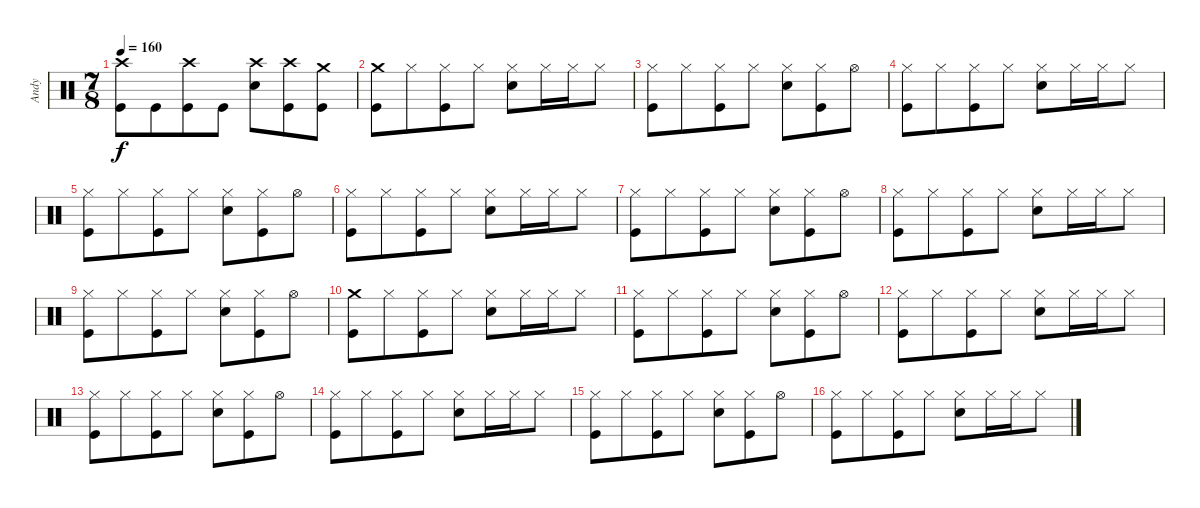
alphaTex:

\track ("Andy" "Andy") {instrument percussion}
\staff {score}
\articulation defaults
\ts (7 8)
\tempo 160
\clef neutral
\ks c
("Kick (hit)" "Crash high (hit)").8{dy f} "Kick (hit)".8 ("Kick (hit)" "Crash high (hit)").8 "Kick (hit)".8 ("Snare (hit) 2" "Crash high (hit)").8 ("Kick (hit)" "Crash high (hit)").8 ("Kick (hit)" "Crash medium (hit)").8 |
("Kick (hit)" "Crash medium (hit)").8 "Hi-Hat (closed)".8 ("Hi-Hat (closed)" "Kick (hit)").8 "Hi-Hat (closed)".8 ("Hi-Hat (closed)" "Snare (hit) 2").8 "Hi-Hat (closed)".16 "Hi-Hat (closed)".16 "Hi-Hat (closed)".8 |
("Kick (hit)" "Hi-Hat (closed)").8 "Hi-Hat (closed)".8 ("Hi-Hat (closed)" "Kick (hit)").8 "Hi-Hat (closed)".8 ("Hi-Hat (closed)" "Snare (hit) 2").8 ("Kick (hit)" "Hi-Hat (closed)").8 "Hi-Hat (open)".8 |
("Kick (hit)" "Hi-Hat (closed)").8 "Hi-Hat (closed)".8 ("Hi-Hat (closed)" "Kick (hit)").8 "Hi-Hat (closed)".8 ("Hi-Hat (closed)" "Snare (hit) 2").8 "Hi-Hat (closed)".16 "Hi-Hat (closed)".16 "Hi-Hat (closed)".8 |
("Kick (hit)" "Hi-Hat (closed)").8 "Hi-Hat (closed)".8 ("Hi-Hat (closed)" "Kick (hit)").8 "Hi-Hat (closed)".8 ("Hi-Hat (closed)" "Snare (hit) 2").8 ("Kick (hit)" "Hi-Hat (closed)").8 "Hi-Hat (open)".8 |
("Kick (hit)" "Hi-Hat (closed)").8 "Hi-Hat (closed)".8 ("Hi-Hat (closed)" "Kick (hit)").8 "Hi-Hat (closed)".8 ("Hi-Hat (closed)" "Snare (hit) 2").8 "Hi-Hat (closed)".16 "Hi-Hat (closed)".16 "Hi-Hat (closed)".8 |
("Kick (hit)" "Hi-Hat (closed)").8 "Hi-Hat (closed)".8 ("Hi-Hat (closed)" "Kick (hit)").8 "Hi-Hat (closed)".8 ("Hi-Hat (closed)" "Snare (hit) 2").8 ("Kick (hit)" "Hi-Hat (closed)").8 "Hi-Hat (open)".8 |
("Kick (hit)" "Hi-Hat (closed)").8 "Hi-Hat (closed)".8 ("Hi-Hat (closed)" "Kick (hit)").8 "Hi-Hat (closed)".8 ("Hi-Hat (closed)" "Snare (hit) 2").8 "Hi-Hat (closed)".16 "Hi-Hat (closed)".16 "Hi-Hat (closed)".8 |
("Kick (hit)" "Hi-Hat (closed)").8 "Hi-Hat (closed)".8 ("Hi-Hat (closed)" "Kick (hit)").8 "Hi-Hat (closed)".8 ("Hi-Hat (closed)" "Snare (hit) 2").8 ("Kick (hit)" "Hi-Hat (closed)").8 "Hi-Hat (open)".8 |
("Kick (hit)" "Crash medium (hit)").8 "Hi-Hat (closed)".8 ("Hi-Hat (closed)" "Kick (hit)").8 "Hi-Hat (closed)".8 ("Hi-Hat (closed)" "Snare (hit) 2").8 "Hi-Hat (closed)".16 "Hi-Hat (closed)".16 "Hi-Hat (closed)".8 |
("Kick (hit)" "Hi-Hat (closed)").8 "Hi-Hat (closed)".8 ("Hi-Hat (closed)" "Kick (hit)").8 "Hi-Hat (closed)".8 ("Hi-Hat (closed)" "Snare (hit) 2").8 ("Kick (hit)" "Hi-Hat (closed)").8 "Hi-Hat (open)".8 |
("Kick (hit)" "Hi-Hat (closed)").8 "Hi-Hat (closed)".8 ("Hi-Hat (closed)" "Kick (hit)").8 "Hi-Hat (closed)".8 ("Hi-Hat (closed)" "Snare (hit) 2").8 "Hi-Hat (closed)".16 "Hi-Hat (closed)".16 "Hi-Hat (closed)".8 |
("Kick (hit)" "Hi-Hat (closed)").8 "Hi-Hat (closed)".8 ("Hi-Hat (closed)" "Kick (hit)").8 "Hi-Hat (closed)".8 ("Hi-Hat (closed)" "Snare (hit) 2").8 ("Kick (hit)" "Hi-Hat (closed)").8 "Hi-Hat (open)".8 |
("Kick (hit)" "Hi-Hat (closed)").8 "Hi-Hat (closed)".8 ("Hi-Hat (closed)" "Kick (hit)").8 "Hi-Hat (closed)".8 ("Hi-Hat (closed)" "Snare (hit) 2").8 "Hi-Hat (closed)".16 "Hi-Hat (closed)".16 "Hi-Hat (closed)".8 |
("Kick (hit)" "Hi-Hat (closed)").8 "Hi-Hat (closed)".8 ("Hi-Hat (closed)" "Kick (hit)").8 "Hi-Hat (closed)".8 ("Hi-Hat (closed)" "Snare (hit) 2").8 ("Kick (hit)" "Hi-Hat (closed)").8 "Hi-Hat (open)".8 |
("Kick (hit)" "Hi-Hat (closed)").8 "Hi-Hat (closed)".8 ("Hi-Hat (closed)" "Kick (hit)").8 "Hi-Hat (closed)".8 ("Hi-Hat (closed)" "Snare (hit) 2").8 "Hi-Hat (closed)".16 "Hi-Hat (closed)".16 "Hi-Hat (closed)".8
